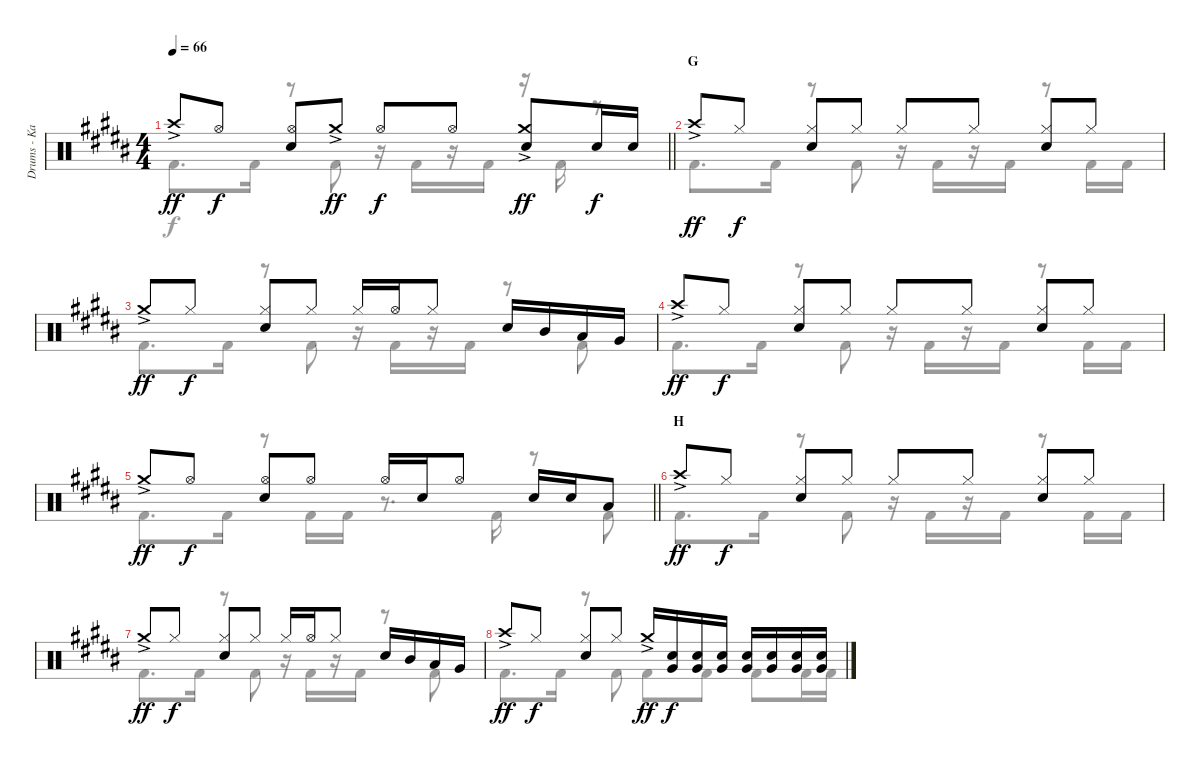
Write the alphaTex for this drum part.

\track ("Drums - Kai" "Drums - Ka") {instrument percussion}
\staff {score}
\articulation defaults
\voice
\ts (4 4)
\tempo 66
\clef neutral
\barLineRight lightlight
\ks b "Crash high (hit)"{ac}.8{dy ff} "Hi-Hat (open)".8{dy f}
("Hi-Hat (open)" "Electric Snare (hit)").8 "Crash medium (hit)"{ac}.8{dy ff} "Hi-Hat (open)".8{dy f} "Hi-Hat (open)".8 ("Crash medium (hit)"{ac} "Electric Snare (hit)").8{dy ff} "Electric Snare (hit)".16{dy f} "Electric Snare (hit)".16 |
\section ("" "G")
"Crash high (hit)"{ac}.8{dy ff} "Hi-Hat (closed)".8{dy f} ("Hi-Hat (closed)" "Electric Snare (hit)").8 "Hi-Hat (closed)".8 "Hi-Hat (closed)".8 "Hi-Hat (closed)".8 ("Hi-Hat (closed)" "Electric Snare (hit)").8 "Hi-Hat (closed)".8 |
"Crash medium (hit)"{ac}.8{dy ff} "Hi-Hat (closed)".8{dy f} ("Hi-Hat (closed)" "Electric Snare (hit)").8 "Hi-Hat (closed)".8 "Hi-Hat (closed)".16 "Hi-Hat (open)".16 "Hi-Hat (closed)".8 "Electric Snare (hit)".16 "Mid Tom (hit)".16 "Low Tom (hit)".16 "Very Low Tom (hit)".16 |
"Crash high (hit)"{ac}.8{dy ff} "Hi-Hat (closed)".8{dy f} ("Hi-Hat (closed)" "Electric Snare (hit)").8 "Hi-Hat (closed)".8 "Hi-Hat (closed)".8 "Hi-Hat (closed)".8 ("Hi-Hat (closed)" "Electric Snare (hit)").8 "Hi-Hat (closed)".8 |
\barLineRight lightlight "Crash medium (hit)"{ac}.8{dy ff} "Hi-Hat (open)".8{dy f}
("Hi-Hat (open)" "Electric Snare (hit)").8 "Hi-Hat (open)".8 "Hi-Hat (open)".16 "Electric Snare (hit)".16 "Hi-Hat (open)".8 "Electric Snare (hit)".16 "Electric Snare (hit)".16 "Low Tom (hit)".8 |
\section ("" "H")
"Crash high (hit)"{ac}.8{dy ff} "Hi-Hat (closed)".8{dy f} ("Hi-Hat (closed)" "Electric Snare (hit)").8 "Hi-Hat (closed)".8 "Hi-Hat (closed)".8 "Hi-Hat (closed)".8 ("Hi-Hat (closed)" "Electric Snare (hit)").8 "Hi-Hat (closed)".8 |
"Crash medium (hit)"{ac}.8{dy ff} "Hi-Hat (closed)".8{dy f} ("Hi-Hat (closed)" "Electric Snare (hit)").8 "Hi-Hat (closed)".8 "Hi-Hat (closed)".16 "Hi-Hat (open)".16 "Hi-Hat (closed)".8 "Electric Snare (hit)".16 "Mid Tom (hit)".16 "Low Tom (hit)".16 "Very Low Tom (hit)".16 |
"Crash high (hit)"{ac}.8{dy ff} "Hi-Hat (closed)".8{dy f} ("Hi-Hat (closed)" "Electric Snare (hit)").8 "Hi-Hat (closed)".8 "Crash medium (hit)"{ac}.16{dy ff} ("Very Low Tom (hit)" "Electric Snare (hit)").16{dy f} ("Very Low Tom (hit)" "Electric Snare (hit)").16 ("Very Low Tom (hit)" "Electric Snare (hit)").16 ("Very Low Tom (hit)" "Electric Snare (hit)").16 ("Very Low Tom (hit)" "Electric Snare (hit)").16 ("Very Low Tom (hit)" "Electric Snare (hit)").16 ("Very Low Tom (hit)" "Electric Snare (hit)").16
\voice
\clef neutral
\ottava regular
\simile none
\barLineRight lightlight
\ks b "Kick (hit) 2".8{d dy f} "Kick (hit) 2".16
r.8 "Kick (hit) 2".8 r.16 "Kick (hit) 2".16 r.16 "Kick (hit) 2".16 r.16 "Kick (hit) 2".16 r.8 |
"Kick (hit) 2".8{d} "Kick (hit) 2".16 r.8 "Kick (hit) 2".8 r.16 "Kick (hit) 2".16 r.16 "Kick (hit) 2".16 r.8 "Kick (hit) 2".16 "Kick (hit) 2".16 |
"Kick (hit) 2".8{d} "Kick (hit) 2".16 r.8 "Kick (hit) 2".8 r.16 "Kick (hit) 2".16 r.16 "Kick (hit) 2".16 r.8 "Kick (hit) 2".8 |
"Kick (hit) 2".8{d} "Kick (hit) 2".16 r.8 "Kick (hit) 2".8 r.16 "Kick (hit) 2".16 r.16 "Kick (hit) 2".16 r.8 "Kick (hit) 2".16 "Kick (hit) 2".16 |
\barLineRight lightlight "Kick (hit) 2".8{d} "Kick (hit) 2".16
r.8 "Kick (hit) 2".16 "Kick (hit) 2".16 r.8{d} "Kick (hit) 2".16 r.8 "Kick (hit) 2".8 |
"Kick (hit) 2".8{d} "Kick (hit) 2".16 r.8 "Kick (hit) 2".8 r.16 "Kick (hit) 2".16 r.16 "Kick (hit) 2".16 r.8 "Kick (hit) 2".16 "Kick (hit) 2".16 |
"Kick (hit) 2".8{d} "Kick (hit) 2".16 r.8 "Kick (hit) 2".8 r.16 "Kick (hit) 2".16 r.16 "Kick (hit) 2".16 r.8 "Kick (hit) 2".8 |
"Kick (hit) 2".8{d} "Kick (hit) 2".16 r.8 "Kick (hit) 2".8 "Kick (hit) 2".8 "Kick (hit) 2".8 "Kick (hit) 2".8 "Kick (hit) 2".16 "Kick (hit) 2".16
